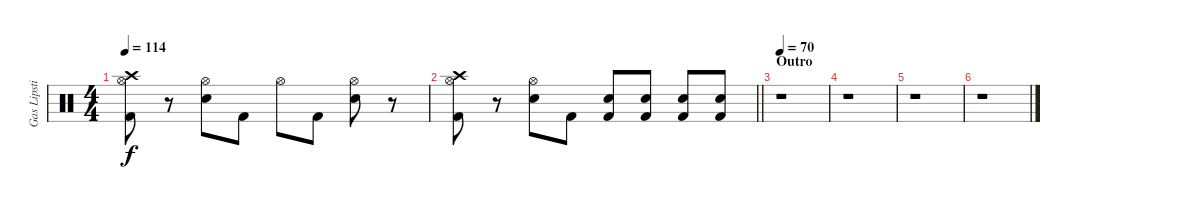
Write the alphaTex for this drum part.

\track ("Gas Lipstick (Drums)" "Gas Lipsti") {instrument percussion}
\staff {score}
\articulation defaults
\ts (4 4)
\tempo 114
\clef neutral
\ks c
("Crash high (hit)" "Hi-Hat (open)" "Kick (hit) 2").8{dy f} r.8 ("Hi-Hat (open)" "Snare (hit) 2").8 "Kick (hit) 2".8 "Hi-Hat (open)".8 "Kick (hit) 2".8 ("Hi-Hat (open)" "Snare (hit) 2").8 r.8 |
\barLineRight lightlight
("Crash high (hit)" "Hi-Hat (open)" "Kick (hit) 2").8 r.8 ("Hi-Hat (open)" "Snare (hit) 2").8 "Kick (hit) 2".8 ("Snare (hit) 2" "Kick (hit) 2").8 ("Snare (hit) 2" "Kick (hit) 2").8 ("Snare (hit) 2" "Kick (hit) 2").8 ("Snare (hit) 2" "Kick (hit) 2").8 |
\section ("" "Outro")
\tempo 70
r.1 |
r.1 |
r.1 |
r.1
